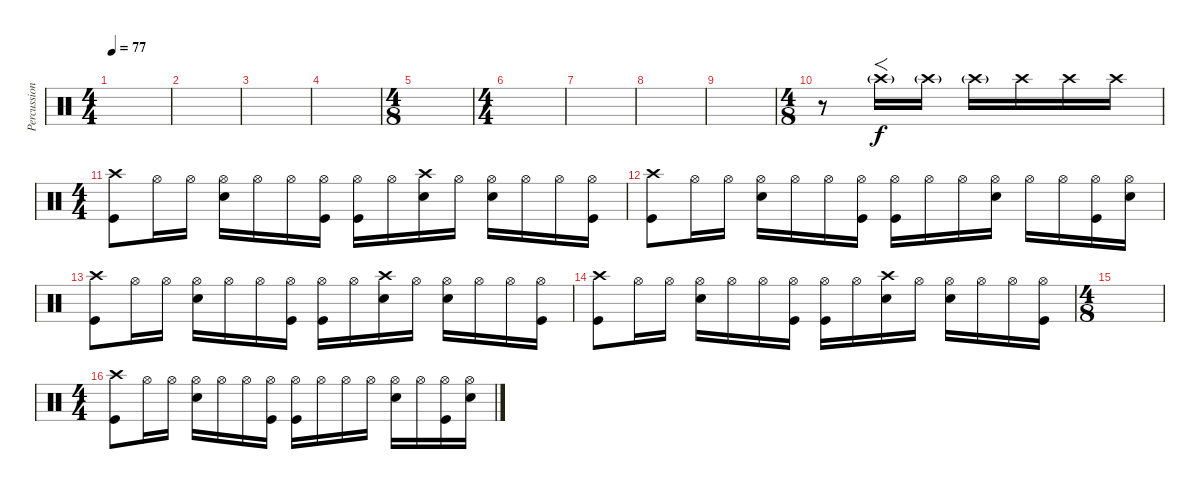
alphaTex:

\track ("Percussion" "Percussion") {instrument percussion}
\staff {score}
\articulation defaults
\ts (4 4)
\tempo 77
\clef neutral
\ks c
|
|
|
|
\ts (4 8)
|
\ts (4 4)
|
|
|
|
\ts (4 8)
r.8 "Crash high (hit)"{g}.16{f} "Crash high (hit)"{g}.16 "Crash high (hit)"{g}.16 "Crash high (hit)".16{dy f} "Crash high (hit)".16 "Crash high (hit)".16 |
\ts (4 4)
("Crash high (hit)" "Kick (hit)").8 "Hi-Hat (open)".16 "Hi-Hat (open)".16 ("Hi-Hat (open)" "Snare (hit) 2").16 "Hi-Hat (open)".16 "Hi-Hat (open)".16 ("Hi-Hat (open)" "Kick (hit)").16 ("Hi-Hat (open)" "Kick (hit)").16 "Hi-Hat (open)".16 ("Crash high (hit)" "Snare (hit) 2").16 "Hi-Hat (open)".16 ("Hi-Hat (open)" "Snare (hit) 2").16 "Hi-Hat (open)".16 "Hi-Hat (open)".16 ("Hi-Hat (open)" "Kick (hit)").16 |
("Crash high (hit)" "Kick (hit)").8 "Hi-Hat (open)".16 "Hi-Hat (open)".16 ("Hi-Hat (open)" "Snare (hit) 2").16 "Hi-Hat (open)".16 "Hi-Hat (open)".16 ("Hi-Hat (open)" "Kick (hit)").16 ("Hi-Hat (open)" "Kick (hit)").16 "Hi-Hat (open)".16 "Hi-Hat (open)".16 ("Hi-Hat (open)" "Snare (hit) 2").16 "Hi-Hat (open)".16 "Hi-Hat (open)".16 ("Hi-Hat (open)" "Kick (hit)").16 ("Hi-Hat (open)" "Snare (hit) 2").16 |
("Crash high (hit)" "Kick (hit)").8 "Hi-Hat (open)".16 "Hi-Hat (open)".16 ("Hi-Hat (open)" "Snare (hit) 2").16 "Hi-Hat (open)".16 "Hi-Hat (open)".16 ("Hi-Hat (open)" "Kick (hit)").16 ("Hi-Hat (open)" "Kick (hit)").16 "Hi-Hat (open)".16 ("Crash high (hit)" "Snare (hit) 2").16 "Hi-Hat (open)".16 ("Hi-Hat (open)" "Snare (hit) 2").16 "Hi-Hat (open)".16 "Hi-Hat (open)".16 ("Hi-Hat (open)" "Kick (hit)").16 |
("Crash high (hit)" "Kick (hit)").8 "Hi-Hat (open)".16 "Hi-Hat (open)".16 ("Hi-Hat (open)" "Snare (hit) 2").16 "Hi-Hat (open)".16 "Hi-Hat (open)".16 ("Hi-Hat (open)" "Kick (hit)").16 ("Hi-Hat (open)" "Kick (hit)").16 "Hi-Hat (open)".16 ("Crash high (hit)" "Snare (hit) 2").16 "Hi-Hat (open)".16 ("Hi-Hat (open)" "Snare (hit) 2").16 "Hi-Hat (open)".16 "Hi-Hat (open)".16 ("Hi-Hat (open)" "Kick (hit)").16 |
\ts (4 8)
|
\ts (4 4)
("Crash high (hit)" "Kick (hit)").8 "Hi-Hat (open)".16 "Hi-Hat (open)".16 ("Hi-Hat (open)" "Snare (hit) 2").16 "Hi-Hat (open)".16 "Hi-Hat (open)".16 ("Hi-Hat (open)" "Kick (hit)").16 ("Hi-Hat (open)" "Kick (hit)").16 "Hi-Hat (open)".16 "Hi-Hat (open)".16 "Hi-Hat (open)".16 ("Hi-Hat (open)" "Snare (hit) 2").16 "Hi-Hat (open)".16 ("Hi-Hat (open)" "Kick (hit)").16 ("Hi-Hat (open)" "Snare (hit) 2").16
